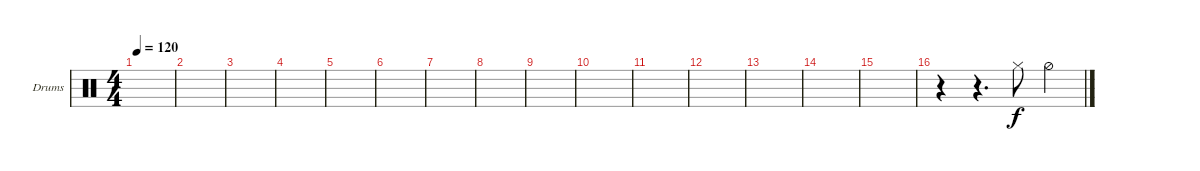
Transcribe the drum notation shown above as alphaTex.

\defaultSystemsLayout 4
\bracketExtendMode groupsimilarinstruments
\firstSystemTrackNameOrientation horizontal
\otherSystemsTrackNameOrientation horizontal
\track ("Drumkit" "Drums") {instrument percussion}
\staff {score}
\articulation defaults
\ts (4 4)
\tempo 120
\clef neutral
\ks c
|
|
|
|
|
|
|
|
|
|
|
|
|
|
|
r.4 r.4{d} "Hi-Hat (closed)".8 "Hi-Hat (half)".4
